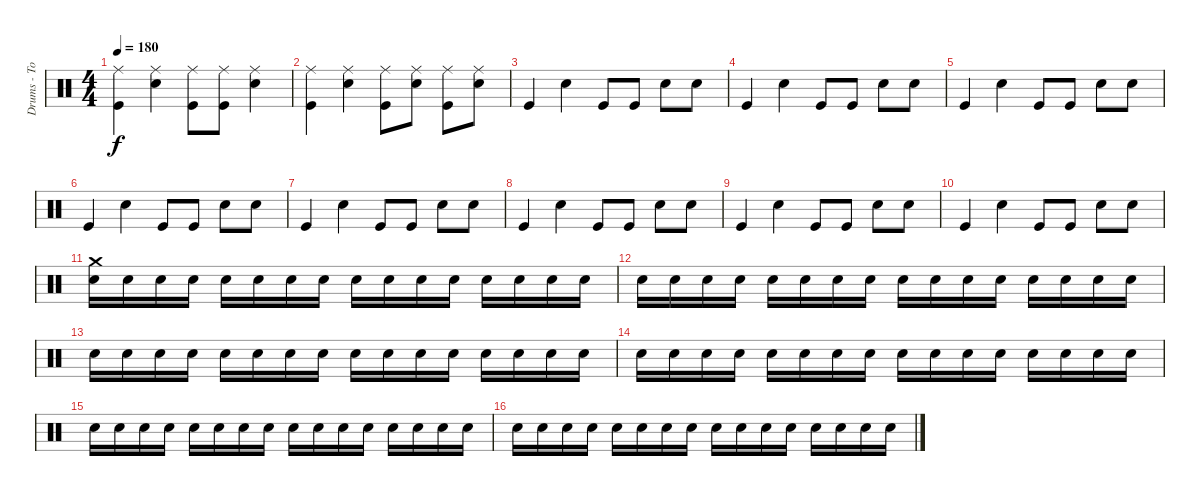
\track ("Drums - Tom" "Drums - To") {instrument percussion}
\staff {score}
\articulation defaults
\ts (4 4)
\tempo 180
\clef neutral
\ks c
("Ride (middle)" "Kick (hit)").4{dy f} ("Ride (middle)" "Snare (hit) 2").4 ("Ride (middle)" "Kick (hit)").8 ("Ride (middle)" "Kick (hit)").8 ("Ride (middle)" "Snare (hit) 2").4 |
("Ride (middle)" "Kick (hit)").4 ("Ride (middle)" "Snare (hit) 2").4 ("Ride (middle)" "Kick (hit)").8 ("Ride (middle)" "Snare (hit) 2").8 ("Ride (middle)" "Kick (hit)").8 ("Ride (middle)" "Snare (hit) 2").8 |
"Kick (hit)".4 "Snare (hit) 2".4 "Kick (hit)".8 "Kick (hit)".8 "Snare (hit) 2".8 "Snare (hit) 2".8 |
"Kick (hit)".4 "Snare (hit) 2".4 "Kick (hit)".8 "Kick (hit)".8 "Snare (hit) 2".8 "Snare (hit) 2".8 |
"Kick (hit)".4 "Snare (hit) 2".4 "Kick (hit)".8 "Kick (hit)".8 "Snare (hit) 2".8 "Snare (hit) 2".8 |
"Kick (hit)".4 "Snare (hit) 2".4 "Kick (hit)".8 "Kick (hit)".8 "Snare (hit) 2".8 "Snare (hit) 2".8 |
"Kick (hit)".4 "Snare (hit) 2".4 "Kick (hit)".8 "Kick (hit)".8 "Snare (hit) 2".8 "Snare (hit) 2".8 |
"Kick (hit)".4 "Snare (hit) 2".4 "Kick (hit)".8 "Kick (hit)".8 "Snare (hit) 2".8 "Snare (hit) 2".8 |
"Kick (hit)".4 "Snare (hit) 2".4 "Kick (hit)".8 "Kick (hit)".8 "Snare (hit) 2".8 "Snare (hit) 2".8 |
"Kick (hit)".4 "Snare (hit) 2".4 "Kick (hit)".8 "Kick (hit)".8 "Snare (hit) 2".8 "Snare (hit) 2".8 |
("Crash medium (hit)" "Snare (hit) 2").16 "Snare (hit) 2".16 "Snare (hit) 2".16 "Snare (hit) 2".16 "Snare (hit) 2".16 "Snare (hit) 2".16 "Snare (hit) 2".16 "Snare (hit) 2".16 "Snare (hit) 2".16 "Snare (hit) 2".16 "Snare (hit) 2".16 "Snare (hit) 2".16 "Snare (hit) 2".16 "Snare (hit) 2".16 "Snare (hit) 2".16 "Snare (hit) 2".16 |
"Snare (hit) 2".16 "Snare (hit) 2".16 "Snare (hit) 2".16 "Snare (hit) 2".16 "Snare (hit) 2".16 "Snare (hit) 2".16 "Snare (hit) 2".16 "Snare (hit) 2".16 "Snare (hit) 2".16 "Snare (hit) 2".16 "Snare (hit) 2".16 "Snare (hit) 2".16 "Snare (hit) 2".16 "Snare (hit) 2".16 "Snare (hit) 2".16 "Snare (hit) 2".16 |
"Snare (hit) 2".16 "Snare (hit) 2".16 "Snare (hit) 2".16 "Snare (hit) 2".16 "Snare (hit) 2".16 "Snare (hit) 2".16 "Snare (hit) 2".16 "Snare (hit) 2".16 "Snare (hit) 2".16 "Snare (hit) 2".16 "Snare (hit) 2".16 "Snare (hit) 2".16 "Snare (hit) 2".16 "Snare (hit) 2".16 "Snare (hit) 2".16 "Snare (hit) 2".16 |
"Snare (hit) 2".16 "Snare (hit) 2".16 "Snare (hit) 2".16 "Snare (hit) 2".16 "Snare (hit) 2".16 "Snare (hit) 2".16 "Snare (hit) 2".16 "Snare (hit) 2".16 "Snare (hit) 2".16 "Snare (hit) 2".16 "Snare (hit) 2".16 "Snare (hit) 2".16 "Snare (hit) 2".16 "Snare (hit) 2".16 "Snare (hit) 2".16 "Snare (hit) 2".16 |
"Snare (hit) 2".16 "Snare (hit) 2".16 "Snare (hit) 2".16 "Snare (hit) 2".16 "Snare (hit) 2".16 "Snare (hit) 2".16 "Snare (hit) 2".16 "Snare (hit) 2".16 "Snare (hit) 2".16 "Snare (hit) 2".16 "Snare (hit) 2".16 "Snare (hit) 2".16 "Snare (hit) 2".16 "Snare (hit) 2".16 "Snare (hit) 2".16 "Snare (hit) 2".16 |
"Snare (hit) 2".16 "Snare (hit) 2".16 "Snare (hit) 2".16 "Snare (hit) 2".16 "Snare (hit) 2".16 "Snare (hit) 2".16 "Snare (hit) 2".16 "Snare (hit) 2".16 "Snare (hit) 2".16 "Snare (hit) 2".16 "Snare (hit) 2".16 "Snare (hit) 2".16 "Snare (hit) 2".16 "Snare (hit) 2".16 "Snare (hit) 2".16 "Snare (hit) 2".16
